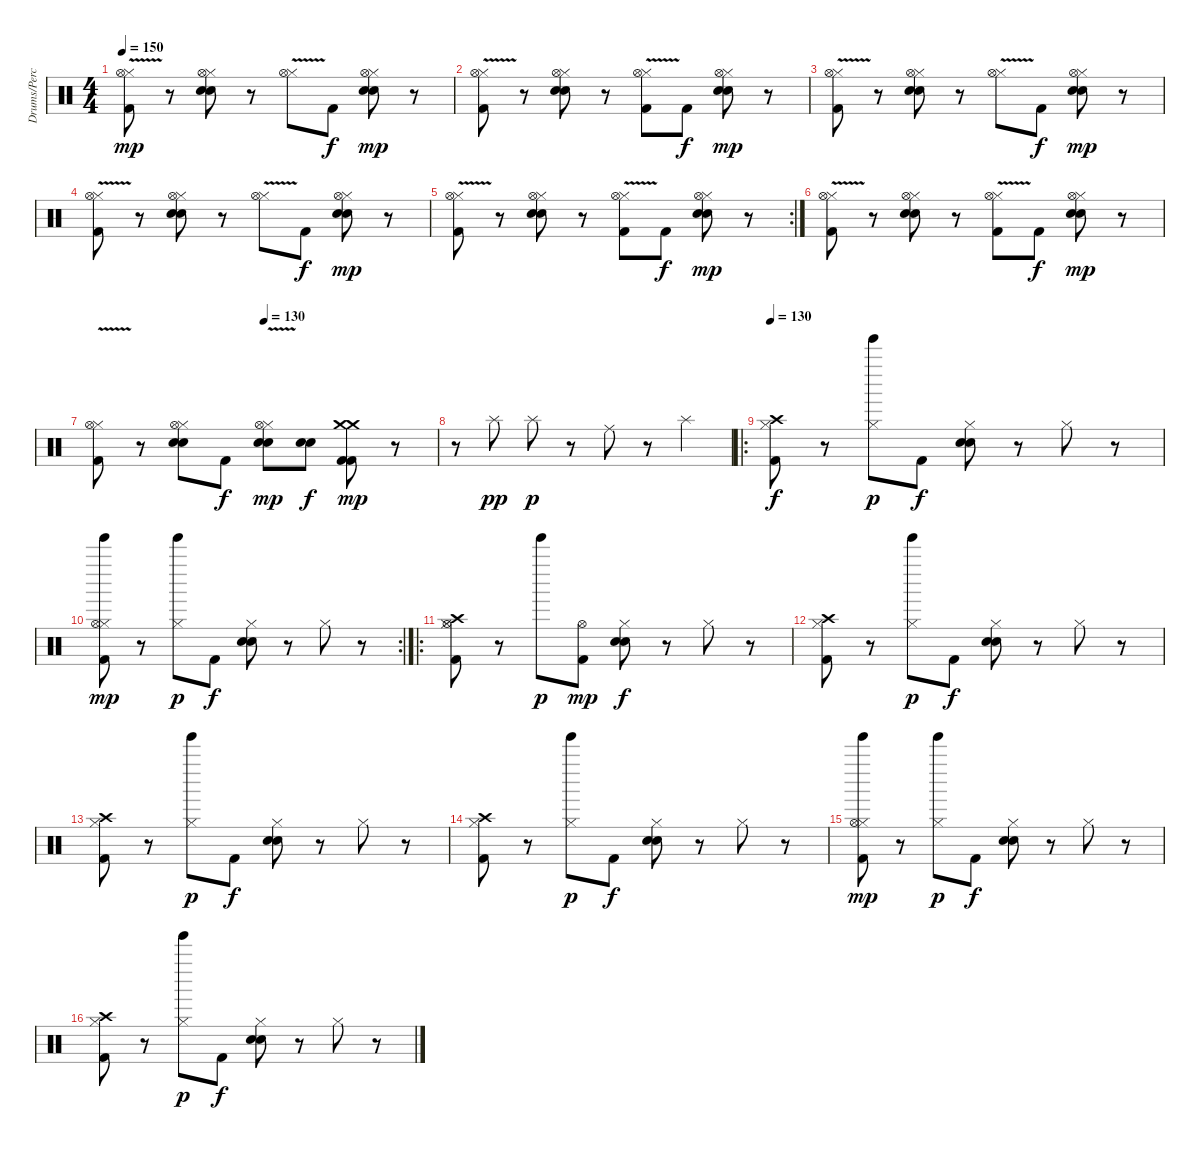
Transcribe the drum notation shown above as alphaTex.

\track ("Drums/Percussion" "Drums/Perc") {instrument percussion}
\staff {score}
\articulation defaults
\ts (4 4)
\tempo 150
\clef neutral
\ks c
("Hi-Hat (closed)"{v} "Hi-Hat (open)"{v} "Kick (hit) 2"{v}).8{dy mp} r.8 ("Hi-Hat (closed)" "Hi-Hat (open)" "Snare (hit) 2" "Electric Snare (hit)").8 r.8 ("Hi-Hat (closed)"{v} "Hi-Hat (open)"{v}).8 "Kick (hit) 2".8{dy f} ("Hi-Hat (closed)" "Hi-Hat (open)" "Snare (hit) 2" "Electric Snare (hit)").8{dy mp} r.8 |
("Hi-Hat (closed)"{v} "Hi-Hat (open)"{v} "Kick (hit) 2"{v}).8 r.8 ("Hi-Hat (closed)" "Hi-Hat (open)" "Snare (hit) 2" "Electric Snare (hit)").8 r.8 ("Hi-Hat (closed)"{v} "Hi-Hat (open)"{v} "Kick (hit) 2"{v}).8 "Kick (hit) 2".8{dy f} ("Hi-Hat (closed)" "Hi-Hat (open)" "Snare (hit) 2" "Electric Snare (hit)").8{dy mp} r.8 |
("Hi-Hat (closed)"{v} "Hi-Hat (open)"{v} "Kick (hit) 2"{v}).8 r.8 ("Hi-Hat (closed)" "Hi-Hat (open)" "Snare (hit) 2" "Electric Snare (hit)").8 r.8 ("Hi-Hat (closed)"{v} "Hi-Hat (open)"{v}).8 "Kick (hit) 2".8{dy f} ("Hi-Hat (closed)" "Hi-Hat (open)" "Snare (hit) 2" "Electric Snare (hit)").8{dy mp} r.8 |
("Hi-Hat (closed)"{v} "Hi-Hat (open)"{v} "Kick (hit) 2"{v}).8 r.8 ("Hi-Hat (closed)" "Hi-Hat (open)" "Snare (hit) 2" "Electric Snare (hit)").8 r.8 ("Hi-Hat (closed)"{v} "Hi-Hat (open)"{v}).8 "Kick (hit) 2".8{dy f} ("Hi-Hat (closed)" "Hi-Hat (open)" "Snare (hit) 2" "Electric Snare (hit)").8{dy mp} r.8 |
\rc 2
("Hi-Hat (closed)"{v} "Hi-Hat (open)"{v} "Kick (hit) 2"{v}).8 r.8 ("Hi-Hat (closed)" "Hi-Hat (open)" "Snare (hit) 2" "Electric Snare (hit)").8 r.8 ("Hi-Hat (closed)"{v} "Hi-Hat (open)"{v} "Kick (hit) 2"{v}).8 "Kick (hit) 2".8{dy f} ("Hi-Hat (closed)" "Hi-Hat (open)" "Snare (hit) 2" "Electric Snare (hit)").8{dy mp} r.8 |
("Hi-Hat (closed)"{v} "Hi-Hat (open)"{v} "Kick (hit) 2"{v}).8 r.8 ("Hi-Hat (closed)" "Hi-Hat (open)" "Snare (hit) 2" "Electric Snare (hit)").8 r.8 ("Hi-Hat (closed)"{v} "Hi-Hat (open)"{v} "Kick (hit) 2"{v}).8 "Kick (hit) 2".8{dy f} ("Hi-Hat (closed)" "Hi-Hat (open)" "Snare (hit) 2" "Electric Snare (hit)").8{dy mp} r.8 |
\tempo (130 0.5)
("Hi-Hat (closed)"{v} "Hi-Hat (open)"{v} "Kick (hit) 2"{v}).8 r.8 ("Hi-Hat (closed)" "Hi-Hat (open)" "Snare (hit) 2" "Electric Snare (hit)").8 "Kick (hit) 2".8{dy f} ("Hi-Hat (closed)"{v} "Hi-Hat (open)"{v} "Snare (hit) 2"{v} "Electric Snare (hit)"{v}).8{dy mp} ("Electric Snare (hit)" "Snare (hit) 2").8{dy f} ("Crash medium (hit)" "Crash medium (hit)" "Kick (hit) 2" "Kick (hit) 2").8{dy mp} r.8 |
r.8 "Splash (hit)".8{dy pp} "Splash (hit)".8{dy p} r.8 "Ride (middle)".8 r.8 "Splash (hit)".4 |
\ro
\tempo 130
("Hi-Hat (closed)" "Crash high (hit)" "Kick (hit) 2").8{dy f} r.8 ("Hi-Hat (closed)" "Tinkle Bell (hit)").8{dy p} "Kick (hit) 2".8{dy f} ("Hi-Hat (closed)" "Snare (hit) 2" "Electric Snare (hit)").8 r.8 "Hi-Hat (closed)".8 r.8 |
\rc 2
("Hi-Hat (closed)" "Hi-Hat (open)" "Tinkle Bell (hit)" "Kick (hit) 2").8{dy mp} r.8 ("Hi-Hat (closed)" "Tinkle Bell (hit)").8{dy p} "Kick (hit) 2".8{dy f} ("Hi-Hat (closed)" "Snare (hit) 2" "Electric Snare (hit)").8 r.8 "Hi-Hat (closed)".8 r.8 |
\ro
("Hi-Hat (open)" "Hi-Hat (closed)" "Crash high (hit)" "Kick (hit) 2").8 r.8 "Tinkle Bell (hit)".8{dy p} ("Hi-Hat (open)" "Kick (hit) 2").8{dy mp} ("Hi-Hat (closed)" "Snare (hit) 2" "Electric Snare (hit)").8{dy f} r.8 "Hi-Hat (closed)".8 r.8 |
("Hi-Hat (closed)" "Crash high (hit)" "Kick (hit) 2").8 r.8 ("Hi-Hat (closed)" "Tinkle Bell (hit)").8{dy p} "Kick (hit) 2".8{dy f} ("Hi-Hat (closed)" "Snare (hit) 2" "Electric Snare (hit)").8 r.8 "Hi-Hat (closed)".8 r.8 |
("Hi-Hat (closed)" "Crash high (hit)" "Kick (hit) 2").8 r.8 ("Hi-Hat (closed)" "Tinkle Bell (hit)").8{dy p} "Kick (hit) 2".8{dy f} ("Hi-Hat (closed)" "Snare (hit) 2" "Electric Snare (hit)").8 r.8 "Hi-Hat (closed)".8 r.8 |
("Hi-Hat (closed)" "Crash high (hit)" "Kick (hit) 2").8 r.8 ("Hi-Hat (closed)" "Tinkle Bell (hit)").8{dy p} "Kick (hit) 2".8{dy f} ("Hi-Hat (closed)" "Snare (hit) 2" "Electric Snare (hit)").8 r.8 "Hi-Hat (closed)".8 r.8 |
("Hi-Hat (closed)" "Hi-Hat (open)" "Tinkle Bell (hit)" "Kick (hit) 2").8{dy mp} r.8 ("Hi-Hat (closed)" "Tinkle Bell (hit)").8{dy p} "Kick (hit) 2".8{dy f} ("Hi-Hat (closed)" "Snare (hit) 2" "Electric Snare (hit)").8 r.8 "Hi-Hat (closed)".8 r.8 |
("Hi-Hat (closed)" "Crash high (hit)" "Kick (hit) 2").8 r.8 ("Hi-Hat (closed)" "Tinkle Bell (hit)").8{dy p} "Kick (hit) 2".8{dy f} ("Hi-Hat (closed)" "Snare (hit) 2" "Electric Snare (hit)").8 r.8 "Hi-Hat (closed)".8 r.8
